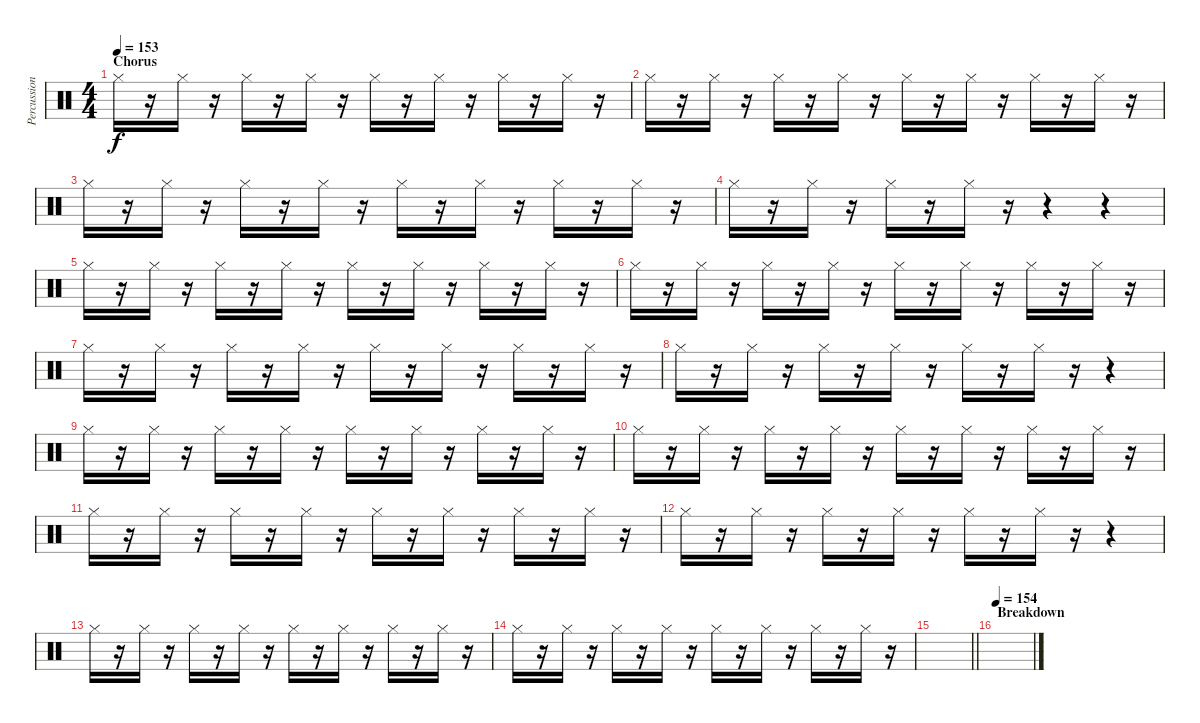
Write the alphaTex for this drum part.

\track ("Percussion" "Percussion") {instrument percussion}
\staff {score}
\articulation defaults
\ts (4 4)
\section ("" "Chorus")
\tempo 153
\clef neutral
\ks c "Hi-Hat (closed)".16{dy f}
r.16 "Hi-Hat (closed)".16 r.16 "Hi-Hat (closed)".16 r.16 "Hi-Hat (closed)".16 r.16 "Hi-Hat (closed)".16 r.16 "Hi-Hat (closed)".16 r.16 "Hi-Hat (closed)".16 r.16 "Hi-Hat (closed)".16 r.16 |
"Hi-Hat (closed)".16 r.16 "Hi-Hat (closed)".16 r.16 "Hi-Hat (closed)".16 r.16 "Hi-Hat (closed)".16 r.16 "Hi-Hat (closed)".16 r.16 "Hi-Hat (closed)".16 r.16 "Hi-Hat (closed)".16 r.16 "Hi-Hat (closed)".16 r.16 |
"Hi-Hat (closed)".16 r.16 "Hi-Hat (closed)".16 r.16 "Hi-Hat (closed)".16 r.16 "Hi-Hat (closed)".16 r.16 "Hi-Hat (closed)".16 r.16 "Hi-Hat (closed)".16 r.16 "Hi-Hat (closed)".16 r.16 "Hi-Hat (closed)".16 r.16 |
"Hi-Hat (closed)".16 r.16 "Hi-Hat (closed)".16 r.16 "Hi-Hat (closed)".16 r.16 "Hi-Hat (closed)".16 r.16 r.4 r.4 |
"Hi-Hat (closed)".16 r.16 "Hi-Hat (closed)".16 r.16 "Hi-Hat (closed)".16 r.16 "Hi-Hat (closed)".16 r.16 "Hi-Hat (closed)".16 r.16 "Hi-Hat (closed)".16 r.16 "Hi-Hat (closed)".16 r.16 "Hi-Hat (closed)".16 r.16 |
"Hi-Hat (closed)".16 r.16 "Hi-Hat (closed)".16 r.16 "Hi-Hat (closed)".16 r.16 "Hi-Hat (closed)".16 r.16 "Hi-Hat (closed)".16 r.16 "Hi-Hat (closed)".16 r.16 "Hi-Hat (closed)".16 r.16 "Hi-Hat (closed)".16 r.16 |
"Hi-Hat (closed)".16 r.16 "Hi-Hat (closed)".16 r.16 "Hi-Hat (closed)".16 r.16 "Hi-Hat (closed)".16 r.16 "Hi-Hat (closed)".16 r.16 "Hi-Hat (closed)".16 r.16 "Hi-Hat (closed)".16 r.16 "Hi-Hat (closed)".16 r.16 |
"Hi-Hat (closed)".16 r.16 "Hi-Hat (closed)".16 r.16 "Hi-Hat (closed)".16 r.16 "Hi-Hat (closed)".16 r.16 "Hi-Hat (closed)".16 r.16 "Hi-Hat (closed)".16 r.16 r.4 |
"Hi-Hat (closed)".16 r.16 "Hi-Hat (closed)".16 r.16 "Hi-Hat (closed)".16 r.16 "Hi-Hat (closed)".16 r.16 "Hi-Hat (closed)".16 r.16 "Hi-Hat (closed)".16 r.16 "Hi-Hat (closed)".16 r.16 "Hi-Hat (closed)".16 r.16 |
"Hi-Hat (closed)".16 r.16 "Hi-Hat (closed)".16 r.16 "Hi-Hat (closed)".16 r.16 "Hi-Hat (closed)".16 r.16 "Hi-Hat (closed)".16 r.16 "Hi-Hat (closed)".16 r.16 "Hi-Hat (closed)".16 r.16 "Hi-Hat (closed)".16 r.16 |
"Hi-Hat (closed)".16 r.16 "Hi-Hat (closed)".16 r.16 "Hi-Hat (closed)".16 r.16 "Hi-Hat (closed)".16 r.16 "Hi-Hat (closed)".16 r.16 "Hi-Hat (closed)".16 r.16 "Hi-Hat (closed)".16 r.16 "Hi-Hat (closed)".16 r.16 |
"Hi-Hat (closed)".16 r.16 "Hi-Hat (closed)".16 r.16 "Hi-Hat (closed)".16 r.16 "Hi-Hat (closed)".16 r.16 "Hi-Hat (closed)".16 r.16 "Hi-Hat (closed)".16 r.16 r.4 |
"Hi-Hat (closed)".16 r.16 "Hi-Hat (closed)".16 r.16 "Hi-Hat (closed)".16 r.16 "Hi-Hat (closed)".16 r.16 "Hi-Hat (closed)".16 r.16 "Hi-Hat (closed)".16 r.16 "Hi-Hat (closed)".16 r.16 "Hi-Hat (closed)".16 r.16 |
"Hi-Hat (closed)".16 r.16 "Hi-Hat (closed)".16 r.16 "Hi-Hat (closed)".16 r.16 "Hi-Hat (closed)".16 r.16 "Hi-Hat (closed)".16 r.16 "Hi-Hat (closed)".16 r.16 "Hi-Hat (closed)".16 r.16 "Hi-Hat (closed)".16 r.16 |
\barLineRight lightlight
|
\section ("" "Breakdown")
\tempo 154
